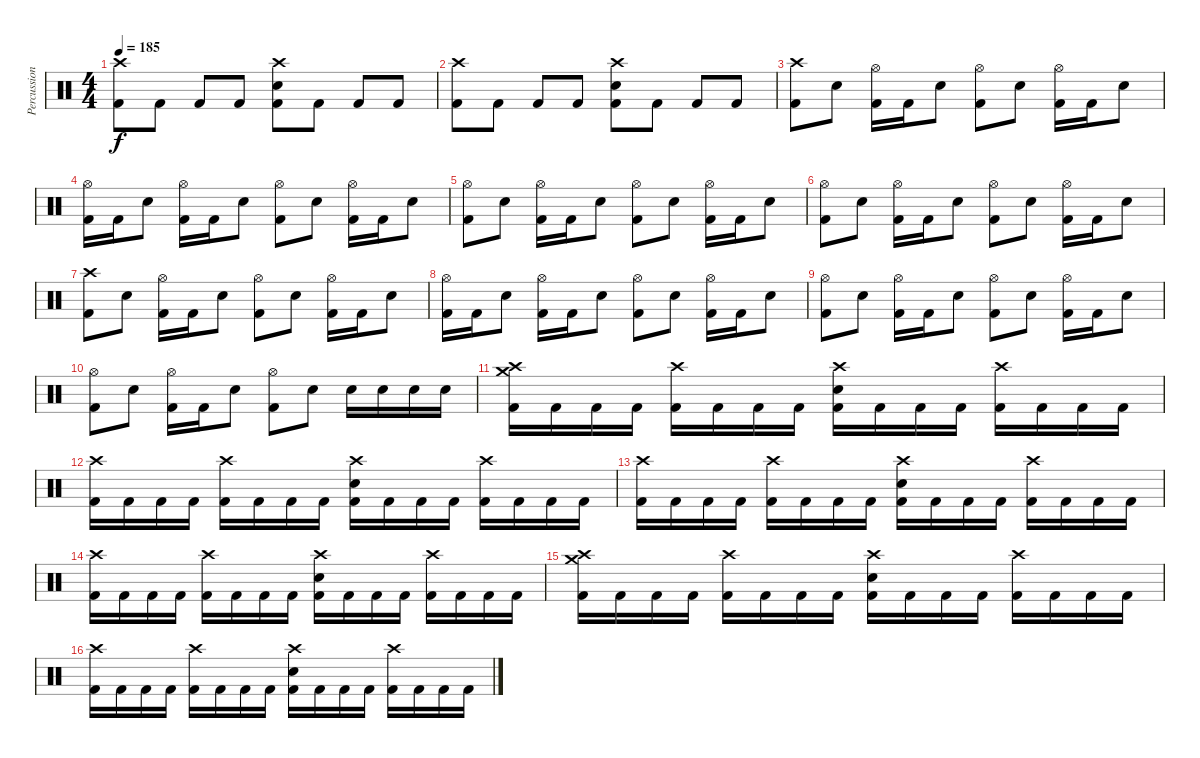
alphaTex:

\track ("Percussion" "Percussion") {instrument percussion}
\staff {score}
\articulation defaults
\ts (4 4)
\tempo 185
\clef neutral
\ks c
("Crash high (hit)" "Kick (hit) 2").8{dy f} "Kick (hit) 2".8 "Kick (hit) 2".8 "Kick (hit) 2".8 ("Crash high (hit)" "Snare (hit) 2" "Kick (hit) 2").8 "Kick (hit) 2".8 "Kick (hit) 2".8 "Kick (hit) 2".8 |
("Crash high (hit)" "Kick (hit) 2").8 "Kick (hit) 2".8 "Kick (hit) 2".8 "Kick (hit) 2".8 ("Crash high (hit)" "Snare (hit) 2" "Kick (hit) 2").8 "Kick (hit) 2".8 "Kick (hit) 2".8 "Kick (hit) 2".8 |
("Crash high (hit)" "Kick (hit) 2").8 "Snare (hit) 2".8 ("Hi-Hat (open)" "Kick (hit) 2").16 "Kick (hit) 2".16 "Snare (hit) 2".8 ("Hi-Hat (open)" "Kick (hit) 2").8 "Snare (hit) 2".8 ("Hi-Hat (open)" "Kick (hit) 2").16 "Kick (hit) 2".16 "Snare (hit) 2".8 |
("Hi-Hat (open)" "Kick (hit) 2").16 "Kick (hit) 2".16 "Snare (hit) 2".8 ("Hi-Hat (open)" "Kick (hit) 2").16 "Kick (hit) 2".16 "Snare (hit) 2".8 ("Hi-Hat (open)" "Kick (hit) 2").8 "Snare (hit) 2".8 ("Hi-Hat (open)" "Kick (hit) 2").16 "Kick (hit) 2".16 "Snare (hit) 2".8 |
("Hi-Hat (open)" "Kick (hit) 2").8 "Snare (hit) 2".8 ("Hi-Hat (open)" "Kick (hit) 2").16 "Kick (hit) 2".16 "Snare (hit) 2".8 ("Hi-Hat (open)" "Kick (hit) 2").8 "Snare (hit) 2".8 ("Hi-Hat (open)" "Kick (hit) 2").16 "Kick (hit) 2".16 "Snare (hit) 2".8 |
("Hi-Hat (open)" "Kick (hit) 2").8 "Snare (hit) 2".8 ("Hi-Hat (open)" "Kick (hit) 2").16 "Kick (hit) 2".16 "Snare (hit) 2".8 ("Hi-Hat (open)" "Kick (hit) 2").8 "Snare (hit) 2".8 ("Hi-Hat (open)" "Kick (hit) 2").16 "Kick (hit) 2".16 "Snare (hit) 2".8 |
("Crash high (hit)" "Kick (hit) 2").8 "Snare (hit) 2".8 ("Hi-Hat (open)" "Kick (hit) 2").16 "Kick (hit) 2".16 "Snare (hit) 2".8 ("Hi-Hat (open)" "Kick (hit) 2").8 "Snare (hit) 2".8 ("Hi-Hat (open)" "Kick (hit) 2").16 "Kick (hit) 2".16 "Snare (hit) 2".8 |
("Hi-Hat (open)" "Kick (hit) 2").16 "Kick (hit) 2".16 "Snare (hit) 2".8 ("Hi-Hat (open)" "Kick (hit) 2").16 "Kick (hit) 2".16 "Snare (hit) 2".8 ("Hi-Hat (open)" "Kick (hit) 2").8 "Snare (hit) 2".8 ("Hi-Hat (open)" "Kick (hit) 2").16 "Kick (hit) 2".16 "Snare (hit) 2".8 |
("Hi-Hat (open)" "Kick (hit) 2").8 "Snare (hit) 2".8 ("Hi-Hat (open)" "Kick (hit) 2").16 "Kick (hit) 2".16 "Snare (hit) 2".8 ("Hi-Hat (open)" "Kick (hit) 2").8 "Snare (hit) 2".8 ("Hi-Hat (open)" "Kick (hit) 2").16 "Kick (hit) 2".16 "Snare (hit) 2".8 |
("Hi-Hat (open)" "Kick (hit) 2").8 "Snare (hit) 2".8 ("Hi-Hat (open)" "Kick (hit) 2").16 "Kick (hit) 2".16 "Snare (hit) 2".8 ("Hi-Hat (open)" "Kick (hit) 2").8 "Snare (hit) 2".8 "Snare (hit) 2".16 "Snare (hit) 2".16 "Snare (hit) 2".16 "Snare (hit) 2".16 |
("Crash high (hit)" "Crash medium (hit)" "Kick (hit) 2").16 "Kick (hit) 2".16 "Kick (hit) 2".16 "Kick (hit) 2".16 ("Crash high (hit)" "Kick (hit) 2").16 "Kick (hit) 2".16 "Kick (hit) 2".16 "Kick (hit) 2".16 ("Crash high (hit)" "Snare (hit) 2" "Kick (hit) 2").16 "Kick (hit) 2".16 "Kick (hit) 2".16 "Kick (hit) 2".16 ("Crash high (hit)" "Kick (hit) 2").16 "Kick (hit) 2".16 "Kick (hit) 2".16 "Kick (hit) 2".16 |
("Crash high (hit)" "Kick (hit) 2").16 "Kick (hit) 2".16 "Kick (hit) 2".16 "Kick (hit) 2".16 ("Crash high (hit)" "Kick (hit) 2").16 "Kick (hit) 2".16 "Kick (hit) 2".16 "Kick (hit) 2".16 ("Crash high (hit)" "Snare (hit) 2" "Kick (hit) 2").16 "Kick (hit) 2".16 "Kick (hit) 2".16 "Kick (hit) 2".16 ("Crash high (hit)" "Kick (hit) 2").16 "Kick (hit) 2".16 "Kick (hit) 2".16 "Kick (hit) 2".16 |
("Crash high (hit)" "Kick (hit) 2").16 "Kick (hit) 2".16 "Kick (hit) 2".16 "Kick (hit) 2".16 ("Crash high (hit)" "Kick (hit) 2").16 "Kick (hit) 2".16 "Kick (hit) 2".16 "Kick (hit) 2".16 ("Crash high (hit)" "Snare (hit) 2" "Kick (hit) 2").16 "Kick (hit) 2".16 "Kick (hit) 2".16 "Kick (hit) 2".16 ("Crash high (hit)" "Kick (hit) 2").16 "Kick (hit) 2".16 "Kick (hit) 2".16 "Kick (hit) 2".16 |
("Crash high (hit)" "Kick (hit) 2").16 "Kick (hit) 2".16 "Kick (hit) 2".16 "Kick (hit) 2".16 ("Crash high (hit)" "Kick (hit) 2").16 "Kick (hit) 2".16 "Kick (hit) 2".16 "Kick (hit) 2".16 ("Crash high (hit)" "Snare (hit) 2" "Kick (hit) 2").16 "Kick (hit) 2".16 "Kick (hit) 2".16 "Kick (hit) 2".16 ("Crash high (hit)" "Kick (hit) 2").16 "Kick (hit) 2".16 "Kick (hit) 2".16 "Kick (hit) 2".16 |
("Crash high (hit)" "Crash medium (hit)" "Kick (hit) 2").16 "Kick (hit) 2".16 "Kick (hit) 2".16 "Kick (hit) 2".16 ("Crash high (hit)" "Kick (hit) 2").16 "Kick (hit) 2".16 "Kick (hit) 2".16 "Kick (hit) 2".16 ("Crash high (hit)" "Snare (hit) 2" "Kick (hit) 2").16 "Kick (hit) 2".16 "Kick (hit) 2".16 "Kick (hit) 2".16 ("Crash high (hit)" "Kick (hit) 2").16 "Kick (hit) 2".16 "Kick (hit) 2".16 "Kick (hit) 2".16 |
("Crash high (hit)" "Kick (hit) 2").16 "Kick (hit) 2".16 "Kick (hit) 2".16 "Kick (hit) 2".16 ("Crash high (hit)" "Kick (hit) 2").16 "Kick (hit) 2".16 "Kick (hit) 2".16 "Kick (hit) 2".16 ("Crash high (hit)" "Snare (hit) 2" "Kick (hit) 2").16 "Kick (hit) 2".16 "Kick (hit) 2".16 "Kick (hit) 2".16 ("Crash high (hit)" "Kick (hit) 2").16 "Kick (hit) 2".16 "Kick (hit) 2".16 "Kick (hit) 2".16
